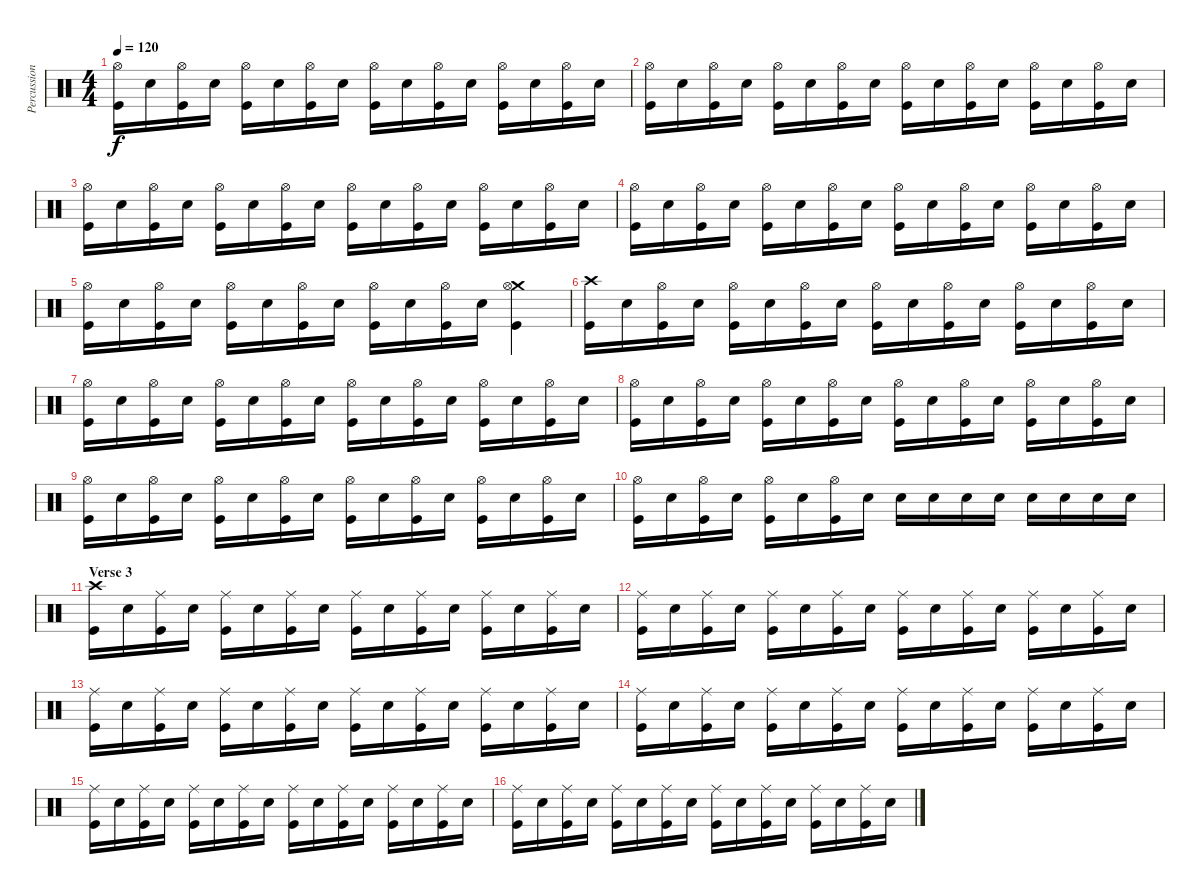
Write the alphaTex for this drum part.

\track ("Percussioni" "Percussion") {instrument percussion}
\staff {score}
\articulation defaults
\ts (4 4)
\tempo 120
\clef neutral
\ks c
("Hi-Hat (open)" "Kick (hit)").16{dy f} "Snare (hit) 2".16 ("Hi-Hat (open)" "Kick (hit)").16 "Snare (hit) 2".16 ("Hi-Hat (open)" "Kick (hit)").16 "Snare (hit) 2".16 ("Hi-Hat (open)" "Kick (hit)").16 "Snare (hit) 2".16 ("Hi-Hat (open)" "Kick (hit)").16 "Snare (hit) 2".16 ("Hi-Hat (open)" "Kick (hit)").16 "Snare (hit) 2".16 ("Hi-Hat (open)" "Kick (hit)").16 "Snare (hit) 2".16 ("Hi-Hat (open)" "Kick (hit)").16 "Snare (hit) 2".16 |
("Hi-Hat (open)" "Kick (hit)").16 "Snare (hit) 2".16 ("Hi-Hat (open)" "Kick (hit)").16 "Snare (hit) 2".16 ("Hi-Hat (open)" "Kick (hit)").16 "Snare (hit) 2".16 ("Hi-Hat (open)" "Kick (hit)").16 "Snare (hit) 2".16 ("Hi-Hat (open)" "Kick (hit)").16 "Snare (hit) 2".16 ("Hi-Hat (open)" "Kick (hit)").16 "Snare (hit) 2".16 ("Hi-Hat (open)" "Kick (hit)").16 "Snare (hit) 2".16 ("Hi-Hat (open)" "Kick (hit)").16 "Snare (hit) 2".16 |
("Hi-Hat (open)" "Kick (hit)").16 "Snare (hit) 2".16 ("Hi-Hat (open)" "Kick (hit)").16 "Snare (hit) 2".16 ("Hi-Hat (open)" "Kick (hit)").16 "Snare (hit) 2".16 ("Hi-Hat (open)" "Kick (hit)").16 "Snare (hit) 2".16 ("Hi-Hat (open)" "Kick (hit)").16 "Snare (hit) 2".16 ("Hi-Hat (open)" "Kick (hit)").16 "Snare (hit) 2".16 ("Hi-Hat (open)" "Kick (hit)").16 "Snare (hit) 2".16 ("Hi-Hat (open)" "Kick (hit)").16 "Snare (hit) 2".16 |
("Hi-Hat (open)" "Kick (hit)").16 "Snare (hit) 2".16 ("Hi-Hat (open)" "Kick (hit)").16 "Snare (hit) 2".16 ("Hi-Hat (open)" "Kick (hit)").16 "Snare (hit) 2".16 ("Hi-Hat (open)" "Kick (hit)").16 "Snare (hit) 2".16 ("Hi-Hat (open)" "Kick (hit)").16 "Snare (hit) 2".16 ("Hi-Hat (open)" "Kick (hit)").16 "Snare (hit) 2".16 ("Hi-Hat (open)" "Kick (hit)").16 "Snare (hit) 2".16 ("Hi-Hat (open)" "Kick (hit)").16 "Snare (hit) 2".16 |
("Hi-Hat (open)" "Kick (hit)").16 "Snare (hit) 2".16 ("Hi-Hat (open)" "Kick (hit)").16 "Snare (hit) 2".16 ("Hi-Hat (open)" "Kick (hit)").16 "Snare (hit) 2".16 ("Hi-Hat (open)" "Kick (hit)").16 "Snare (hit) 2".16 ("Hi-Hat (open)" "Kick (hit)").16 "Snare (hit) 2".16 ("Hi-Hat (open)" "Kick (hit)").16 "Snare (hit) 2".16 ("Crash medium (hit)" "Hi-Hat (open)" "Kick (hit)").4 |
("Crash high (hit)" "Kick (hit)").16 "Snare (hit) 2".16 ("Hi-Hat (open)" "Kick (hit)").16 "Snare (hit) 2".16 ("Hi-Hat (open)" "Kick (hit)").16 "Snare (hit) 2".16 ("Hi-Hat (open)" "Kick (hit)").16 "Snare (hit) 2".16 ("Hi-Hat (open)" "Kick (hit)").16 "Snare (hit) 2".16 ("Hi-Hat (open)" "Kick (hit)").16 "Snare (hit) 2".16 ("Hi-Hat (open)" "Kick (hit)").16 "Snare (hit) 2".16 ("Hi-Hat (open)" "Kick (hit)").16 "Snare (hit) 2".16 |
("Hi-Hat (open)" "Kick (hit)").16 "Snare (hit) 2".16 ("Hi-Hat (open)" "Kick (hit)").16 "Snare (hit) 2".16 ("Hi-Hat (open)" "Kick (hit)").16 "Snare (hit) 2".16 ("Hi-Hat (open)" "Kick (hit)").16 "Snare (hit) 2".16 ("Hi-Hat (open)" "Kick (hit)").16 "Snare (hit) 2".16 ("Hi-Hat (open)" "Kick (hit)").16 "Snare (hit) 2".16 ("Hi-Hat (open)" "Kick (hit)").16 "Snare (hit) 2".16 ("Hi-Hat (open)" "Kick (hit)").16 "Snare (hit) 2".16 |
("Hi-Hat (open)" "Kick (hit)").16 "Snare (hit) 2".16 ("Hi-Hat (open)" "Kick (hit)").16 "Snare (hit) 2".16 ("Hi-Hat (open)" "Kick (hit)").16 "Snare (hit) 2".16 ("Hi-Hat (open)" "Kick (hit)").16 "Snare (hit) 2".16 ("Hi-Hat (open)" "Kick (hit)").16 "Snare (hit) 2".16 ("Hi-Hat (open)" "Kick (hit)").16 "Snare (hit) 2".16 ("Hi-Hat (open)" "Kick (hit)").16 "Snare (hit) 2".16 ("Hi-Hat (open)" "Kick (hit)").16 "Snare (hit) 2".16 |
("Hi-Hat (open)" "Kick (hit)").16 "Snare (hit) 2".16 ("Hi-Hat (open)" "Kick (hit)").16 "Snare (hit) 2".16 ("Hi-Hat (open)" "Kick (hit)").16 "Snare (hit) 2".16 ("Hi-Hat (open)" "Kick (hit)").16 "Snare (hit) 2".16 ("Hi-Hat (open)" "Kick (hit)").16 "Snare (hit) 2".16 ("Hi-Hat (open)" "Kick (hit)").16 "Snare (hit) 2".16 ("Hi-Hat (open)" "Kick (hit)").16 "Snare (hit) 2".16 ("Hi-Hat (open)" "Kick (hit)").16 "Snare (hit) 2".16 |
("Hi-Hat (open)" "Kick (hit)").16 "Snare (hit) 2".16 ("Hi-Hat (open)" "Kick (hit)").16 "Snare (hit) 2".16 ("Hi-Hat (open)" "Kick (hit)").16 "Snare (hit) 2".16 ("Hi-Hat (open)" "Kick (hit)").16 "Snare (hit) 2".16 "Snare (hit) 2".16 "Snare (hit) 2".16 "Snare (hit) 2".16 "Snare (hit) 2".16 "Snare (hit) 2".16 "Snare (hit) 2".16 "Snare (hit) 2".16 "Snare (hit) 2".16 |
\section ("" "Verse 3")
("Crash high (hit)" "Kick (hit)").16 "Snare (hit) 2".16 ("Ride (middle)" "Kick (hit)").16 "Snare (hit) 2".16 ("Ride (middle)" "Kick (hit)").16 "Snare (hit) 2".16 ("Ride (middle)" "Kick (hit)").16 "Snare (hit) 2".16 ("Ride (middle)" "Kick (hit)").16 "Snare (hit) 2".16 ("Ride (middle)" "Kick (hit)").16 "Snare (hit) 2".16 ("Ride (middle)" "Kick (hit)").16 "Snare (hit) 2".16 ("Ride (middle)" "Kick (hit)").16 "Snare (hit) 2".16 |
("Ride (middle)" "Kick (hit)").16 "Snare (hit) 2".16 ("Ride (middle)" "Kick (hit)").16 "Snare (hit) 2".16 ("Ride (middle)" "Kick (hit)").16 "Snare (hit) 2".16 ("Ride (middle)" "Kick (hit)").16 "Snare (hit) 2".16 ("Ride (middle)" "Kick (hit)").16 "Snare (hit) 2".16 ("Ride (middle)" "Kick (hit)").16 "Snare (hit) 2".16 ("Ride (middle)" "Kick (hit)").16 "Snare (hit) 2".16 ("Ride (middle)" "Kick (hit)").16 "Snare (hit) 2".16 |
("Ride (middle)" "Kick (hit)").16 "Snare (hit) 2".16 ("Ride (middle)" "Kick (hit)").16 "Snare (hit) 2".16 ("Ride (middle)" "Kick (hit)").16 "Snare (hit) 2".16 ("Ride (middle)" "Kick (hit)").16 "Snare (hit) 2".16 ("Ride (middle)" "Kick (hit)").16 "Snare (hit) 2".16 ("Ride (middle)" "Kick (hit)").16 "Snare (hit) 2".16 ("Ride (middle)" "Kick (hit)").16 "Snare (hit) 2".16 ("Ride (middle)" "Kick (hit)").16 "Snare (hit) 2".16 |
("Ride (middle)" "Kick (hit)").16 "Snare (hit) 2".16 ("Ride (middle)" "Kick (hit)").16 "Snare (hit) 2".16 ("Ride (middle)" "Kick (hit)").16 "Snare (hit) 2".16 ("Ride (middle)" "Kick (hit)").16 "Snare (hit) 2".16 ("Ride (middle)" "Kick (hit)").16 "Snare (hit) 2".16 ("Ride (middle)" "Kick (hit)").16 "Snare (hit) 2".16 ("Ride (middle)" "Kick (hit)").16 "Snare (hit) 2".16 ("Ride (middle)" "Kick (hit)").16 "Snare (hit) 2".16 |
("Ride (middle)" "Kick (hit)").16 "Snare (hit) 2".16 ("Ride (middle)" "Kick (hit)").16 "Snare (hit) 2".16 ("Ride (middle)" "Kick (hit)").16 "Snare (hit) 2".16 ("Ride (middle)" "Kick (hit)").16 "Snare (hit) 2".16 ("Ride (middle)" "Kick (hit)").16 "Snare (hit) 2".16 ("Ride (middle)" "Kick (hit)").16 "Snare (hit) 2".16 ("Ride (middle)" "Kick (hit)").16 "Snare (hit) 2".16 ("Ride (middle)" "Kick (hit)").16 "Snare (hit) 2".16 |
("Ride (middle)" "Kick (hit)").16 "Snare (hit) 2".16 ("Ride (middle)" "Kick (hit)").16 "Snare (hit) 2".16 ("Ride (middle)" "Kick (hit)").16 "Snare (hit) 2".16 ("Ride (middle)" "Kick (hit)").16 "Snare (hit) 2".16 ("Ride (middle)" "Kick (hit)").16 "Snare (hit) 2".16 ("Ride (middle)" "Kick (hit)").16 "Snare (hit) 2".16 ("Ride (middle)" "Kick (hit)").16 "Snare (hit) 2".16 ("Ride (middle)" "Kick (hit)").16 "Snare (hit) 2".16
